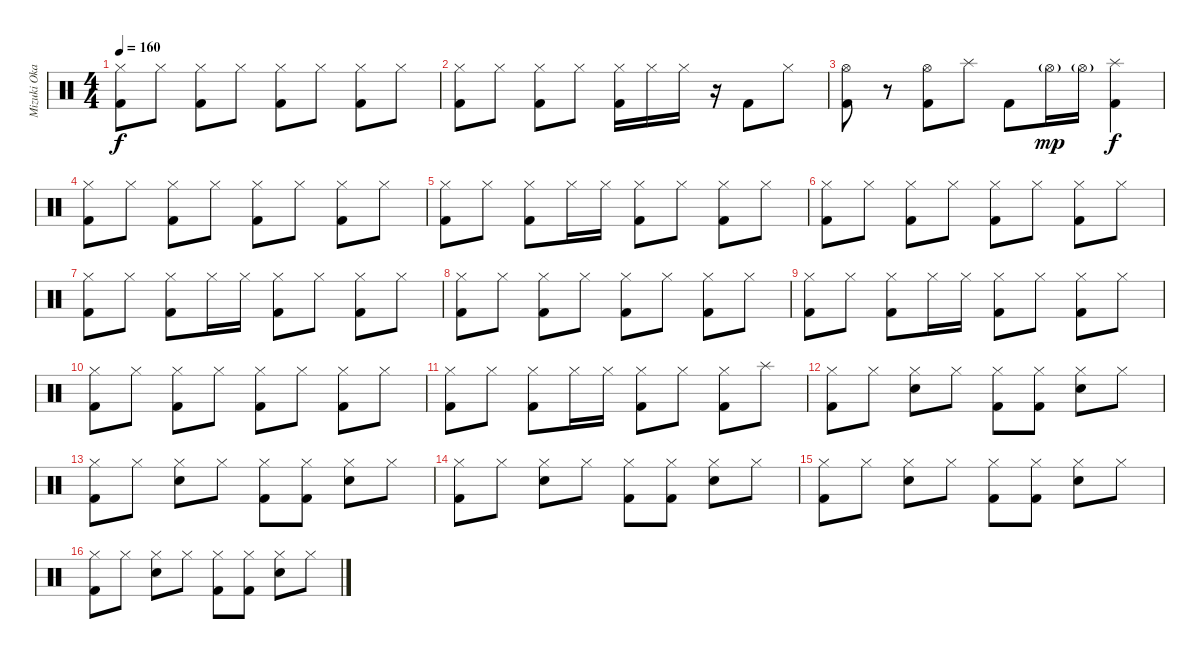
\track ("Mizuki Okajima (Drums)" "Mizuki Oka") {instrument percussion}
\staff {score}
\articulation defaults
\ts (4 4)
\tempo 160
\clef neutral
\ks c
("Hi-Hat (closed)" "Kick (hit) 2").8{dy f} "Hi-Hat (closed)".8 ("Hi-Hat (closed)" "Kick (hit) 2").8 "Hi-Hat (closed)".8 ("Hi-Hat (closed)" "Kick (hit) 2").8 "Hi-Hat (closed)".8 ("Hi-Hat (closed)" "Kick (hit) 2").8 "Hi-Hat (closed)".8 |
("Hi-Hat (closed)" "Kick (hit) 2").8 "Hi-Hat (closed)".8 ("Hi-Hat (closed)" "Kick (hit) 2").8 "Hi-Hat (closed)".8 ("Hi-Hat (closed)" "Kick (hit) 2").16 "Hi-Hat (closed)".16 "Hi-Hat (closed)".16 r.16 "Kick (hit) 2".8 "Hi-Hat (closed)".8 |
("Hi-Hat (open)" "Kick (hit) 2").8 r.8 ("Hi-Hat (open)" "Kick (hit) 2").8 "Splash (hit)".8 "Kick (hit) 2".8 "Hi-Hat (open)"{g}.16{dy mp} "Hi-Hat (open)"{g}.16 ("Splash (hit)" "Kick (hit) 2").4{dy f} |
("Hi-Hat (closed)" "Kick (hit) 2").8 "Hi-Hat (closed)".8 ("Hi-Hat (closed)" "Kick (hit) 2").8 "Hi-Hat (closed)".8 ("Hi-Hat (closed)" "Kick (hit) 2").8 "Hi-Hat (closed)".8 ("Hi-Hat (closed)" "Kick (hit) 2").8 "Hi-Hat (closed)".8 |
("Hi-Hat (closed)" "Kick (hit) 2").8 "Hi-Hat (closed)".8 ("Hi-Hat (closed)" "Kick (hit) 2").8 "Hi-Hat (closed)".16 "Hi-Hat (closed)".16 ("Hi-Hat (closed)" "Kick (hit) 2").8 "Hi-Hat (closed)".8 ("Hi-Hat (closed)" "Kick (hit) 2").8 "Hi-Hat (closed)".8 |
("Hi-Hat (closed)" "Kick (hit) 2").8 "Hi-Hat (closed)".8 ("Hi-Hat (closed)" "Kick (hit) 2").8 "Hi-Hat (closed)".8 ("Hi-Hat (closed)" "Kick (hit) 2").8 "Hi-Hat (closed)".8 ("Hi-Hat (closed)" "Kick (hit) 2").8 "Hi-Hat (closed)".8 |
("Hi-Hat (closed)" "Kick (hit) 2").8 "Hi-Hat (closed)".8 ("Hi-Hat (closed)" "Kick (hit) 2").8 "Hi-Hat (closed)".16 "Hi-Hat (closed)".16 ("Hi-Hat (closed)" "Kick (hit) 2").8 "Hi-Hat (closed)".8 ("Hi-Hat (closed)" "Kick (hit) 2").8 "Hi-Hat (closed)".8 |
("Hi-Hat (closed)" "Kick (hit) 2").8 "Hi-Hat (closed)".8 ("Hi-Hat (closed)" "Kick (hit) 2").8 "Hi-Hat (closed)".8 ("Hi-Hat (closed)" "Kick (hit) 2").8 "Hi-Hat (closed)".8 ("Hi-Hat (closed)" "Kick (hit) 2").8 "Hi-Hat (closed)".8 |
("Hi-Hat (closed)" "Kick (hit) 2").8 "Hi-Hat (closed)".8 ("Hi-Hat (closed)" "Kick (hit) 2").8 "Hi-Hat (closed)".16 "Hi-Hat (closed)".16 ("Hi-Hat (closed)" "Kick (hit) 2").8 "Hi-Hat (closed)".8 ("Hi-Hat (closed)" "Kick (hit) 2").8 "Hi-Hat (closed)".8 |
("Hi-Hat (closed)" "Kick (hit) 2").8 "Hi-Hat (closed)".8 ("Hi-Hat (closed)" "Kick (hit) 2").8 "Hi-Hat (closed)".8 ("Hi-Hat (closed)" "Kick (hit) 2").8 "Hi-Hat (closed)".8 ("Hi-Hat (closed)" "Kick (hit) 2").8 "Hi-Hat (closed)".8 |
("Hi-Hat (closed)" "Kick (hit) 2").8 "Hi-Hat (closed)".8 ("Hi-Hat (closed)" "Kick (hit) 2").8 "Hi-Hat (closed)".16 "Hi-Hat (closed)".16 ("Hi-Hat (closed)" "Kick (hit) 2").8 "Hi-Hat (closed)".8 ("Hi-Hat (closed)" "Kick (hit) 2").8 "Splash (hit)".8 |
("Hi-Hat (closed)" "Kick (hit) 2").8 "Hi-Hat (closed)".8 ("Hi-Hat (closed)" "Snare (hit) 2").8 "Hi-Hat (closed)".8 ("Hi-Hat (closed)" "Kick (hit) 2").8 ("Hi-Hat (closed)" "Kick (hit) 2").8 ("Hi-Hat (closed)" "Snare (hit) 2").8 "Hi-Hat (closed)".8 |
("Hi-Hat (closed)" "Kick (hit) 2").8 "Hi-Hat (closed)".8 ("Hi-Hat (closed)" "Snare (hit) 2").8 "Hi-Hat (closed)".8 ("Hi-Hat (closed)" "Kick (hit) 2").8 ("Hi-Hat (closed)" "Kick (hit) 2").8 ("Hi-Hat (closed)" "Snare (hit) 2").8 "Hi-Hat (closed)".8 |
("Hi-Hat (closed)" "Kick (hit) 2").8 "Hi-Hat (closed)".8 ("Hi-Hat (closed)" "Snare (hit) 2").8 "Hi-Hat (closed)".8 ("Hi-Hat (closed)" "Kick (hit) 2").8 ("Hi-Hat (closed)" "Kick (hit) 2").8 ("Hi-Hat (closed)" "Snare (hit) 2").8 "Hi-Hat (closed)".8 |
("Hi-Hat (closed)" "Kick (hit) 2").8 "Hi-Hat (closed)".8 ("Hi-Hat (closed)" "Snare (hit) 2").8 "Hi-Hat (closed)".8 ("Hi-Hat (closed)" "Kick (hit) 2").8 ("Hi-Hat (closed)" "Kick (hit) 2").8 ("Hi-Hat (closed)" "Snare (hit) 2").8 "Hi-Hat (closed)".8 |
("Hi-Hat (closed)" "Kick (hit) 2").8 "Hi-Hat (closed)".8 ("Hi-Hat (closed)" "Snare (hit) 2").8 "Hi-Hat (closed)".8 ("Hi-Hat (closed)" "Kick (hit) 2").8 ("Hi-Hat (closed)" "Kick (hit) 2").8 ("Hi-Hat (closed)" "Snare (hit) 2").8 "Hi-Hat (closed)".8
